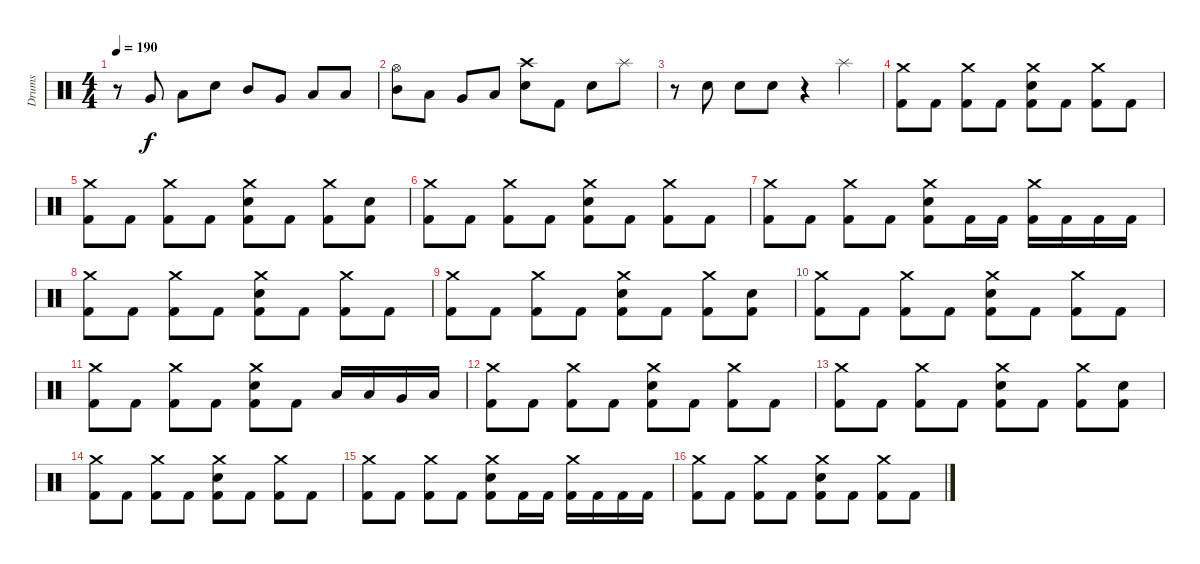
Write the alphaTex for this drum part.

\track ("Drums" "Drums") {instrument percussion}
\staff {score}
\articulation defaults
\ts (4 4)
\tempo 190
\clef neutral
\ks c
r.8{dy f} "Very Low Tom (hit)".8 "Low Floor Tom (hit)".8 "Electric Snare (hit)".8 "Mid Tom (hit)".8 "Very Low Tom (hit)".8 "Low Tom (hit)".8 "Low Floor Tom (hit)".8 |
("Hi-Hat (open)" "Mid Tom (hit)").8 "Low Tom (hit)".8 "Very Low Tom (hit)".8 "Low Floor Tom (hit)".8 ("Crash high (hit)" "Electric Snare (hit)").8 "Kick (hit) 2".8 "Electric Snare (hit)".8 "Splash (hit)".8 |
r.8 "Electric Snare (hit)".8 "Electric Snare (hit)".8 "Electric Snare (hit)".8 r.4 "Splash (hit)".4 |
("Crash medium (hit)" "Kick (hit) 2").8 "Kick (hit) 2".8 ("Crash medium (hit)" "Kick (hit) 2").8 "Kick (hit) 2".8 ("Crash medium (hit)" "Electric Snare (hit)" "Kick (hit) 2").8 "Kick (hit) 2".8 ("Crash medium (hit)" "Kick (hit) 2").8 "Kick (hit) 2".8 |
("Crash medium (hit)" "Kick (hit) 2").8 "Kick (hit) 2".8 ("Crash medium (hit)" "Kick (hit) 2").8 "Kick (hit) 2".8 ("Crash medium (hit)" "Electric Snare (hit)" "Kick (hit) 2").8 "Kick (hit) 2".8 ("Crash medium (hit)" "Kick (hit) 2").8 ("Electric Snare (hit)" "Kick (hit) 2").8 |
("Crash medium (hit)" "Kick (hit) 2").8 "Kick (hit) 2".8 ("Crash medium (hit)" "Kick (hit) 2").8 "Kick (hit) 2".8 ("Crash medium (hit)" "Electric Snare (hit)" "Kick (hit) 2").8 "Kick (hit) 2".8 ("Crash medium (hit)" "Kick (hit) 2").8 "Kick (hit) 2".8 |
("Crash medium (hit)" "Kick (hit) 2").8 "Kick (hit) 2".8 ("Crash medium (hit)" "Kick (hit) 2").8 "Kick (hit) 2".8 ("Crash medium (hit)" "Electric Snare (hit)" "Kick (hit) 2").8 "Kick (hit) 2".16 "Kick (hit) 2".16 ("Crash medium (hit)" "Kick (hit) 2").16 "Kick (hit) 2".16 "Kick (hit) 2".16 "Kick (hit) 2".16 |
("Crash medium (hit)" "Kick (hit) 2").8 "Kick (hit) 2".8 ("Crash medium (hit)" "Kick (hit) 2").8 "Kick (hit) 2".8 ("Crash medium (hit)" "Electric Snare (hit)" "Kick (hit) 2").8 "Kick (hit) 2".8 ("Crash medium (hit)" "Kick (hit) 2").8 "Kick (hit) 2".8 |
("Crash medium (hit)" "Kick (hit) 2").8 "Kick (hit) 2".8 ("Crash medium (hit)" "Kick (hit) 2").8 "Kick (hit) 2".8 ("Crash medium (hit)" "Electric Snare (hit)" "Kick (hit) 2").8 "Kick (hit) 2".8 ("Crash medium (hit)" "Kick (hit) 2").8 ("Electric Snare (hit)" "Kick (hit) 2").8 |
("Crash medium (hit)" "Kick (hit) 2").8 "Kick (hit) 2".8 ("Crash medium (hit)" "Kick (hit) 2").8 "Kick (hit) 2".8 ("Crash medium (hit)" "Electric Snare (hit)" "Kick (hit) 2").8 "Kick (hit) 2".8 ("Crash medium (hit)" "Kick (hit) 2").8 "Kick (hit) 2".8 |
("Crash medium (hit)" "Kick (hit) 2").8 "Kick (hit) 2".8 ("Crash medium (hit)" "Kick (hit) 2").8 "Kick (hit) 2".8 ("Crash medium (hit)" "Electric Snare (hit)" "Kick (hit) 2").8 "Kick (hit) 2".8 "Low Tom (hit)".16 "Low Tom (hit)".16 "Very Low Tom (hit)".16 "Low Floor Tom (hit)".16 |
("Crash medium (hit)" "Kick (hit) 2").8 "Kick (hit) 2".8 ("Crash medium (hit)" "Kick (hit) 2").8 "Kick (hit) 2".8 ("Crash medium (hit)" "Electric Snare (hit)" "Kick (hit) 2").8 "Kick (hit) 2".8 ("Crash medium (hit)" "Kick (hit) 2").8 "Kick (hit) 2".8 |
("Crash medium (hit)" "Kick (hit) 2").8 "Kick (hit) 2".8 ("Crash medium (hit)" "Kick (hit) 2").8 "Kick (hit) 2".8 ("Crash medium (hit)" "Electric Snare (hit)" "Kick (hit) 2").8 "Kick (hit) 2".8 ("Crash medium (hit)" "Kick (hit) 2").8 ("Electric Snare (hit)" "Kick (hit) 2").8 |
("Crash medium (hit)" "Kick (hit) 2").8 "Kick (hit) 2".8 ("Crash medium (hit)" "Kick (hit) 2").8 "Kick (hit) 2".8 ("Crash medium (hit)" "Electric Snare (hit)" "Kick (hit) 2").8 "Kick (hit) 2".8 ("Crash medium (hit)" "Kick (hit) 2").8 "Kick (hit) 2".8 |
("Crash medium (hit)" "Kick (hit) 2").8 "Kick (hit) 2".8 ("Crash medium (hit)" "Kick (hit) 2").8 "Kick (hit) 2".8 ("Crash medium (hit)" "Electric Snare (hit)" "Kick (hit) 2").8 "Kick (hit) 2".16 "Kick (hit) 2".16 ("Crash medium (hit)" "Kick (hit) 2").16 "Kick (hit) 2".16 "Kick (hit) 2".16 "Kick (hit) 2".16 |
("Crash medium (hit)" "Kick (hit) 2").8 "Kick (hit) 2".8 ("Crash medium (hit)" "Kick (hit) 2").8 "Kick (hit) 2".8 ("Crash medium (hit)" "Electric Snare (hit)" "Kick (hit) 2").8 "Kick (hit) 2".8 ("Crash medium (hit)" "Kick (hit) 2").8 "Kick (hit) 2".8
